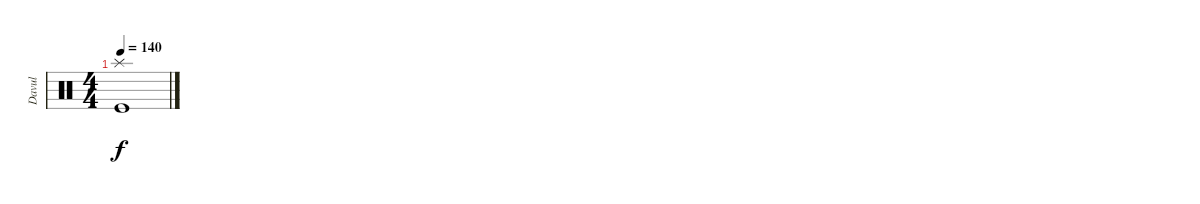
\track ("Davul" "Davul") {instrument percussion}
\staff {score}
\articulation defaults
\ts (4 4)
\tempo 140
\clef neutral
\ks c
("Splash (hit)" "Kick (hit)").1{dy f}
